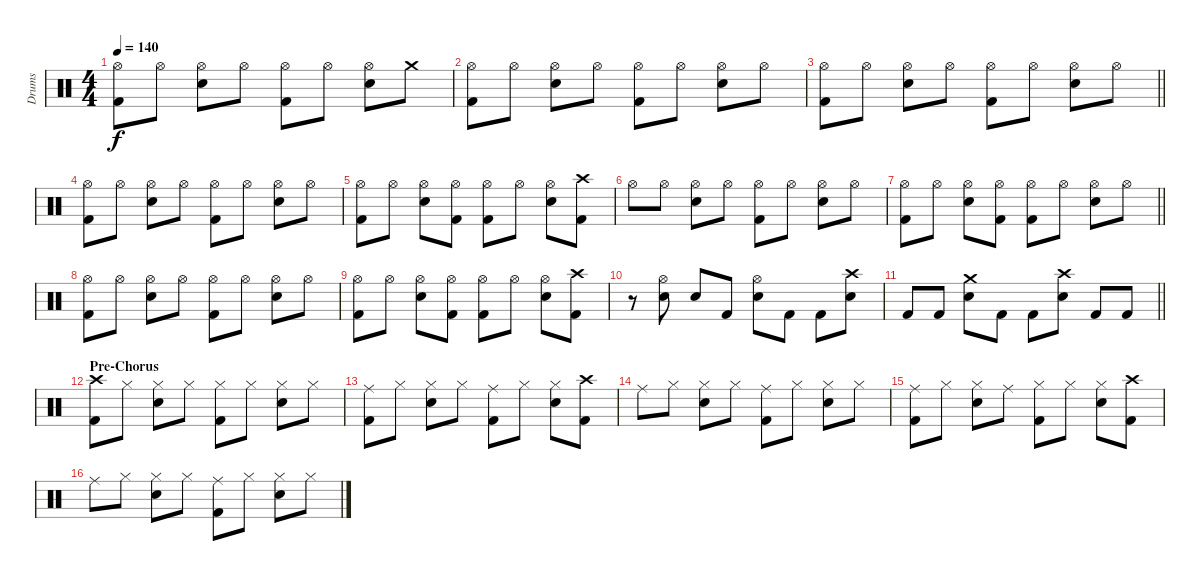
\track ("Drums" "Drums") {instrument percussion}
\staff {score}
\articulation defaults
\ts (4 4)
\tempo 140
\clef neutral
\ks c
("Hi-Hat (open)" "Kick (hit) 2").8{dy f} "Hi-Hat (open)".8 ("Hi-Hat (open)" "Snare (hit) 2").8 "Hi-Hat (open)".8 ("Hi-Hat (open)" "Kick (hit) 2").8 "Hi-Hat (open)".8 ("Hi-Hat (open)" "Snare (hit) 2").8 "Crash medium (hit)".8 |
("Hi-Hat (open)" "Kick (hit) 2").8 "Hi-Hat (open)".8 ("Hi-Hat (open)" "Snare (hit) 2").8 "Hi-Hat (open)".8 ("Hi-Hat (open)" "Kick (hit) 2").8 "Hi-Hat (open)".8 ("Hi-Hat (open)" "Snare (hit) 2").8 "Hi-Hat (open)".8 |
\barLineRight lightlight
("Hi-Hat (open)" "Kick (hit) 2").8 "Hi-Hat (open)".8 ("Hi-Hat (open)" "Snare (hit) 2").8 "Hi-Hat (open)".8 ("Hi-Hat (open)" "Kick (hit) 2").8 "Hi-Hat (open)".8 ("Hi-Hat (open)" "Snare (hit) 2").8 "Hi-Hat (open)".8 |
("Hi-Hat (open)" "Kick (hit) 2").8 "Hi-Hat (open)".8 ("Hi-Hat (open)" "Snare (hit) 2").8 "Hi-Hat (open)".8 ("Hi-Hat (open)" "Kick (hit) 2").8 "Hi-Hat (open)".8 ("Hi-Hat (open)" "Snare (hit) 2").8 "Hi-Hat (open)".8 |
("Hi-Hat (open)" "Kick (hit) 2").8 "Hi-Hat (open)".8 ("Hi-Hat (open)" "Snare (hit) 2").8 ("Hi-Hat (open)" "Kick (hit) 2").8 ("Hi-Hat (open)" "Kick (hit) 2").8 "Hi-Hat (open)".8 ("Hi-Hat (open)" "Snare (hit) 2").8 ("Crash high (hit)" "Kick (hit) 2").8 |
"Hi-Hat (open)".8 "Hi-Hat (open)".8 ("Hi-Hat (open)" "Snare (hit) 2").8 "Hi-Hat (open)".8 ("Hi-Hat (open)" "Kick (hit) 2").8 "Hi-Hat (open)".8 ("Hi-Hat (open)" "Snare (hit) 2").8 "Hi-Hat (open)".8 |
\barLineRight lightlight
("Hi-Hat (open)" "Kick (hit) 2").8 "Hi-Hat (open)".8 ("Hi-Hat (open)" "Snare (hit) 2").8 ("Hi-Hat (open)" "Kick (hit) 2").8 ("Hi-Hat (open)" "Kick (hit) 2").8 "Hi-Hat (open)".8 ("Hi-Hat (open)" "Snare (hit) 2").8 "Hi-Hat (open)".8 |
("Hi-Hat (open)" "Kick (hit) 2").8 "Hi-Hat (open)".8 ("Hi-Hat (open)" "Snare (hit) 2").8 "Hi-Hat (open)".8 ("Hi-Hat (open)" "Kick (hit) 2").8 "Hi-Hat (open)".8 ("Hi-Hat (open)" "Snare (hit) 2").8 "Hi-Hat (open)".8 |
("Hi-Hat (open)" "Kick (hit) 2").8 "Hi-Hat (open)".8 ("Hi-Hat (open)" "Snare (hit) 2").8 ("Hi-Hat (open)" "Kick (hit) 2").8 ("Hi-Hat (open)" "Kick (hit) 2").8 "Hi-Hat (open)".8 ("Hi-Hat (open)" "Snare (hit) 2").8 ("Crash high (hit)" "Kick (hit) 2").8 |
r.8 ("Hi-Hat (open)" "Snare (hit) 2").8 "Snare (hit) 2".8 "Kick (hit) 2".8 ("Hi-Hat (open)" "Snare (hit) 2").8 "Kick (hit) 2".8 "Kick (hit) 2".8 ("Crash high (hit)" "Snare (hit) 2").8 |
\barLineRight lightlight "Kick (hit) 2".8 "Kick (hit) 2".8
("Crash medium (hit)" "Snare (hit) 2").8 "Kick (hit) 2".8 "Kick (hit) 2".8 ("Crash high (hit)" "Snare (hit) 2").8 "Kick (hit) 2".8 "Kick (hit) 2".8 |
\section ("" "Pre-Chorus")
("Crash high (hit)" "Kick (hit) 2").8 "Hi-Hat (closed)".8 ("Hi-Hat (closed)" "Snare (hit) 2").8 "Hi-Hat (closed)".8 ("Hi-Hat (closed)" "Kick (hit) 2").8 "Hi-Hat (closed)".8 ("Hi-Hat (closed)" "Snare (hit) 2").8 "Hi-Hat (closed)".8 |
("Ride (middle)" "Kick (hit) 2").8 "Hi-Hat (closed)".8 ("Hi-Hat (closed)" "Snare (hit) 2").8 "Hi-Hat (closed)".8 ("Ride (middle)" "Kick (hit) 2").8 "Hi-Hat (closed)".8 ("Hi-Hat (closed)" "Snare (hit) 2").8 ("Crash high (hit)" "Kick (hit) 2").8 |
"Ride (middle)".8 "Hi-Hat (closed)".8 ("Hi-Hat (closed)" "Snare (hit) 2").8 "Hi-Hat (closed)".8 ("Ride (middle)" "Kick (hit) 2").8 "Hi-Hat (closed)".8 ("Hi-Hat (closed)" "Snare (hit) 2").8 "Hi-Hat (closed)".8 |
("Ride (middle)" "Kick (hit) 2").8 "Hi-Hat (closed)".8 ("Hi-Hat (closed)" "Snare (hit) 2").8 "Ride (middle)".8 ("Hi-Hat (closed)" "Kick (hit) 2").8 "Hi-Hat (closed)".8 ("Hi-Hat (closed)" "Snare (hit) 2").8 ("Crash high (hit)" "Kick (hit) 2").8 |
"Ride (middle)".8 "Hi-Hat (closed)".8 ("Hi-Hat (closed)" "Snare (hit) 2").8 "Hi-Hat (closed)".8 ("Ride (middle)" "Kick (hit) 2").8 "Hi-Hat (closed)".8 ("Hi-Hat (closed)" "Snare (hit) 2").8 "Hi-Hat (closed)".8
